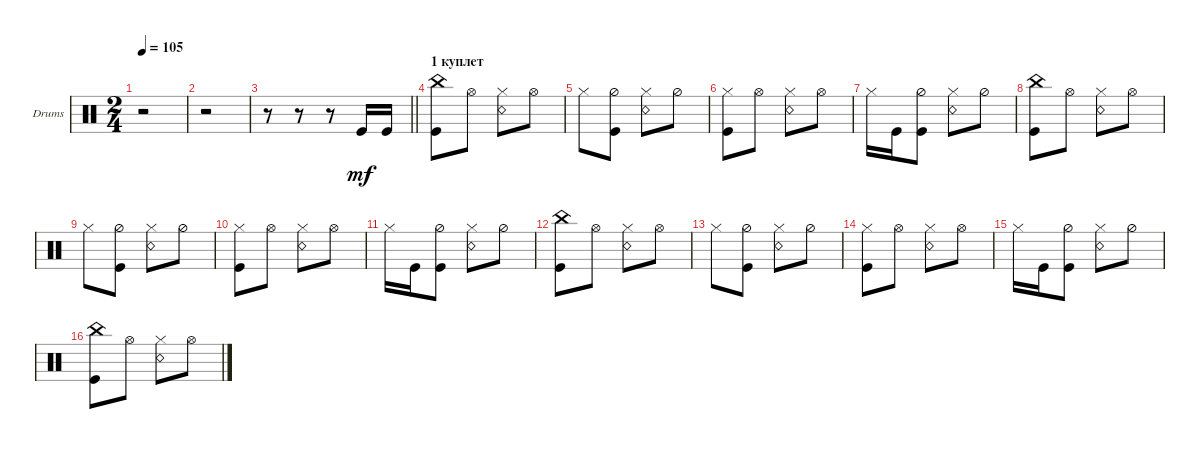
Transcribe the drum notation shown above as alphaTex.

\defaultSystemsLayout 4
\bracketExtendMode groupsimilarinstruments
\firstSystemTrackNameOrientation horizontal
\otherSystemsTrackNameOrientation horizontal
\track ("Drumkit" "Drums") {instrument percussion}
\staff {score}
\articulation defaults
\ts (2 4)
\tempo 105
\clef neutral
\scale
0.5
\ks c
r.2{dy mf} |
\scale
0.5 r.2 |
\scale
0.5
\barLineRight lightlight
r.8 r.8 r.8 "Kick (hit)".16 "Kick (hit)".16 |
\section ("" "1 куплет")
\scale
0.5 ("Kick (hit)" "China (hit)").8 "Hi-Hat (open)".8 ("Hi-Hat (closed)" "Snare (rim shot)").8 "Hi-Hat (open)".8 |
\scale
0.5 "Hi-Hat (closed)".8 ("Kick (hit)" "Hi-Hat (half)").8 ("Snare (rim shot)" "Hi-Hat (closed)").8 "Hi-Hat (half)".8 |
\scale
0.5 ("Kick (hit)" "Hi-Hat (closed)").8 "Hi-Hat (open)".8 ("Hi-Hat (closed)" "Snare (rim shot)").8 "Hi-Hat (open)".8 |
\scale
0.5 "Hi-Hat (closed)".16 "Kick (hit)".16 ("Hi-Hat (half)" "Kick (hit)").8 ("Snare (rim shot)" "Hi-Hat (closed)").8 "Hi-Hat (half)".8 |
\scale
0.5 ("Kick (hit)" "China (hit)").8 "Hi-Hat (open)".8 ("Hi-Hat (closed)" "Snare (rim shot)").8 "Hi-Hat (open)".8 |
\scale
0.5 "Hi-Hat (closed)".8 ("Kick (hit)" "Hi-Hat (half)").8 ("Snare (rim shot)" "Hi-Hat (closed)").8 "Hi-Hat (half)".8 |
\scale
0.5 ("Kick (hit)" "Hi-Hat (closed)").8 "Hi-Hat (open)".8 ("Hi-Hat (closed)" "Snare (rim shot)").8 "Hi-Hat (open)".8 |
\scale
0.5 "Hi-Hat (closed)".16 "Kick (hit)".16 ("Hi-Hat (half)" "Kick (hit)").8 ("Snare (rim shot)" "Hi-Hat (closed)").8 "Hi-Hat (half)".8 |
\scale
0.5 ("Kick (hit)" "China (hit)").8 "Hi-Hat (open)".8 ("Hi-Hat (closed)" "Snare (rim shot)").8 "Hi-Hat (open)".8 |
\scale
0.5 "Hi-Hat (closed)".8 ("Kick (hit)" "Hi-Hat (half)").8 ("Snare (rim shot)" "Hi-Hat (closed)").8 "Hi-Hat (half)".8 |
\scale
0.5 ("Kick (hit)" "Hi-Hat (closed)").8 "Hi-Hat (open)".8 ("Hi-Hat (closed)" "Snare (rim shot)").8 "Hi-Hat (open)".8 |
\scale
0.5 "Hi-Hat (closed)".16 "Kick (hit)".16 ("Hi-Hat (half)" "Kick (hit)").8 ("Snare (rim shot)" "Hi-Hat (closed)").8 "Hi-Hat (half)".8 |
\scale
0.5 ("Kick (hit)" "China (hit)").8 "Hi-Hat (open)".8 ("Hi-Hat (closed)" "Snare (rim shot)").8 "Hi-Hat (open)".8
